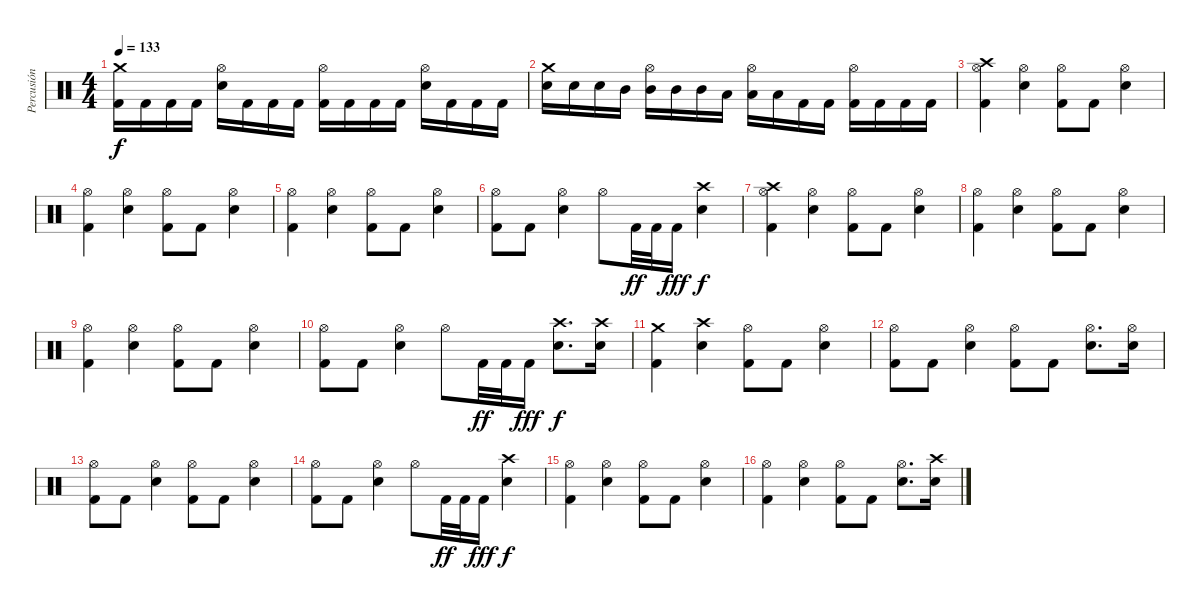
\track ("Percusión" "Percusión") {instrument percussion}
\staff {score}
\articulation defaults
\ts (4 4)
\tempo 133
\clef neutral
\ks c
("Crash medium (hit)" "Kick (hit) 2").16{dy f} "Kick (hit) 2".16 "Kick (hit) 2".16 "Kick (hit) 2".16 ("Hi-Hat (open)" "Snare (hit) 2").16 "Kick (hit) 2".16 "Kick (hit) 2".16 "Kick (hit) 2".16 ("Hi-Hat (open)" "Kick (hit) 2").16 "Kick (hit) 2".16 "Kick (hit) 2".16 "Kick (hit) 2".16 ("Hi-Hat (open)" "Snare (hit) 2").16 "Kick (hit) 2".16 "Kick (hit) 2".16 "Kick (hit) 2".16 |
("Crash medium (hit)" "Snare (hit) 2").16 "Snare (hit) 2".16 "Snare (hit) 2".16 "Mid Tom (hit)".16 ("Hi-Hat (open)" "Mid Tom (hit)").16 "Mid Tom (hit)".16 "Mid Tom (hit)".16 "Low Tom (hit)".16 ("Hi-Hat (open)" "Low Tom (hit)").16 "Low Tom (hit)".16 "Kick (hit) 2".16 "Kick (hit) 2".16 ("Hi-Hat (open)" "Kick (hit) 2").16 "Kick (hit) 2".16 "Kick (hit) 2".16 "Kick (hit) 2".16 |
("Crash high (hit)" "Hi-Hat (open)" "Kick (hit) 2").4 ("Hi-Hat (open)" "Snare (hit) 2").4 ("Hi-Hat (open)" "Kick (hit) 2").8 "Kick (hit) 2".8 ("Hi-Hat (open)" "Snare (hit) 2").4 |
("Hi-Hat (open)" "Kick (hit) 2").4 ("Hi-Hat (open)" "Snare (hit) 2").4 ("Hi-Hat (open)" "Kick (hit) 2").8 "Kick (hit) 2".8 ("Hi-Hat (open)" "Snare (hit) 2").4 |
("Hi-Hat (open)" "Kick (hit) 2").4 ("Hi-Hat (open)" "Snare (hit) 2").4 ("Hi-Hat (open)" "Kick (hit) 2").8 "Kick (hit) 2".8 ("Hi-Hat (open)" "Snare (hit) 2").4 |
("Hi-Hat (open)" "Kick (hit) 2").8 "Kick (hit) 2".8 ("Hi-Hat (open)" "Snare (hit) 2").4 "Hi-Hat (open)".8 "Kick (hit) 2".32{dy ff} "Kick (hit) 2".32 "Kick (hit) 2".16{dy fff} ("Crash high (hit)" "Snare (hit) 2").4{dy f} |
("Crash high (hit)" "Hi-Hat (open)" "Kick (hit) 2").4 ("Hi-Hat (open)" "Snare (hit) 2").4 ("Hi-Hat (open)" "Kick (hit) 2").8 "Kick (hit) 2".8 ("Hi-Hat (open)" "Snare (hit) 2").4 |
("Hi-Hat (open)" "Kick (hit) 2").4 ("Hi-Hat (open)" "Snare (hit) 2").4 ("Hi-Hat (open)" "Kick (hit) 2").8 "Kick (hit) 2".8 ("Hi-Hat (open)" "Snare (hit) 2").4 |
("Hi-Hat (open)" "Kick (hit) 2").4 ("Hi-Hat (open)" "Snare (hit) 2").4 ("Hi-Hat (open)" "Kick (hit) 2").8 "Kick (hit) 2".8 ("Hi-Hat (open)" "Snare (hit) 2").4 |
("Hi-Hat (open)" "Kick (hit) 2").8 "Kick (hit) 2".8 ("Hi-Hat (open)" "Snare (hit) 2").4 "Hi-Hat (open)".8 "Kick (hit) 2".32{dy ff} "Kick (hit) 2".32 "Kick (hit) 2".16{dy fff} ("Crash high (hit)" "Snare (hit) 2").8{d dy f} ("Crash high (hit)" "Snare (hit) 2").16 |
("Crash medium (hit)" "Kick (hit) 2").4 ("Crash high (hit)" "Snare (hit) 2").4 ("Hi-Hat (open)" "Kick (hit) 2").8 "Kick (hit) 2".8 ("Hi-Hat (open)" "Snare (hit) 2").4 |
("Hi-Hat (open)" "Kick (hit) 2").8 "Kick (hit) 2".8 ("Hi-Hat (open)" "Snare (hit) 2").4 ("Hi-Hat (open)" "Kick (hit) 2").8 "Kick (hit) 2".8 ("Hi-Hat (open)" "Snare (hit) 2").8{d} ("Hi-Hat (open)" "Snare (hit) 2").16 |
("Hi-Hat (open)" "Kick (hit) 2").8 "Kick (hit) 2".8 ("Hi-Hat (open)" "Snare (hit) 2").4 ("Hi-Hat (open)" "Kick (hit) 2").8 "Kick (hit) 2".8 ("Hi-Hat (open)" "Snare (hit) 2").4 |
("Hi-Hat (open)" "Kick (hit) 2").8 "Kick (hit) 2".8 ("Hi-Hat (open)" "Snare (hit) 2").4 "Hi-Hat (open)".8 "Kick (hit) 2".32{dy ff} "Kick (hit) 2".32 "Kick (hit) 2".16{dy fff} ("Crash high (hit)" "Snare (hit) 2").4{dy f} |
("Hi-Hat (open)" "Kick (hit) 2").4 ("Hi-Hat (open)" "Snare (hit) 2").4 ("Hi-Hat (open)" "Kick (hit) 2").8 "Kick (hit) 2".8 ("Hi-Hat (open)" "Snare (hit) 2").4 |
("Hi-Hat (open)" "Kick (hit) 2").4 ("Hi-Hat (open)" "Snare (hit) 2").4 ("Hi-Hat (open)" "Kick (hit) 2").8 "Kick (hit) 2".8 ("Hi-Hat (open)" "Snare (hit) 2").8{d} ("Crash high (hit)" "Snare (hit) 2").16
